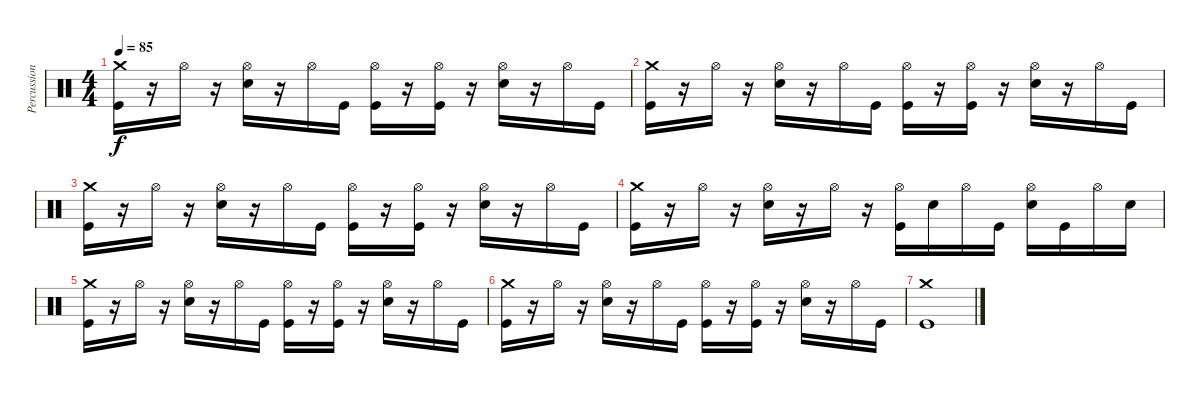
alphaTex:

\track ("Percussion" "Percussion") {instrument percussion}
\staff {score}
\articulation defaults
\ts (4 4)
\tempo 85
\clef neutral
\ks c
("Crash medium (hit)" "Kick (hit)").16{dy f} r.16 "Hi-Hat (open)".16 r.16 ("Hi-Hat (open)" "Snare (hit) 2").16 r.16 "Hi-Hat (open)".16 "Kick (hit)".16 ("Hi-Hat (open)" "Kick (hit)").16 r.16 ("Hi-Hat (open)" "Kick (hit)").16 r.16 ("Hi-Hat (open)" "Snare (hit) 2").16 r.16 "Hi-Hat (open)".16 "Kick (hit)".16 |
("Crash medium (hit)" "Kick (hit)").16 r.16 "Hi-Hat (open)".16 r.16 ("Hi-Hat (open)" "Snare (hit) 2").16 r.16 "Hi-Hat (open)".16 "Kick (hit)".16 ("Hi-Hat (open)" "Kick (hit)").16 r.16 ("Hi-Hat (open)" "Kick (hit)").16 r.16 ("Hi-Hat (open)" "Snare (hit) 2").16 r.16 "Hi-Hat (open)".16 "Kick (hit)".16 |
("Crash medium (hit)" "Kick (hit)").16 r.16 "Hi-Hat (open)".16 r.16 ("Hi-Hat (open)" "Snare (hit) 2").16 r.16 "Hi-Hat (open)".16 "Kick (hit)".16 ("Hi-Hat (open)" "Kick (hit)").16 r.16 ("Hi-Hat (open)" "Kick (hit)").16 r.16 ("Hi-Hat (open)" "Snare (hit) 2").16 r.16 "Hi-Hat (open)".16 "Kick (hit)".16 |
("Crash medium (hit)" "Kick (hit)").16 r.16 "Hi-Hat (open)".16 r.16 ("Hi-Hat (open)" "Snare (hit) 2").16 r.16 "Hi-Hat (open)".16 r.16 ("Hi-Hat (open)" "Kick (hit)").16 "Snare (hit) 2".16 "Hi-Hat (open)".16 "Kick (hit)".16 ("Hi-Hat (open)" "Snare (hit) 2").16 "Kick (hit)".16 "Hi-Hat (open)".16 "Snare (hit) 2".16 |
("Crash medium (hit)" "Kick (hit)").16 r.16 "Hi-Hat (open)".16 r.16 ("Hi-Hat (open)" "Snare (hit) 2").16 r.16 "Hi-Hat (open)".16 "Kick (hit)".16 ("Hi-Hat (open)" "Kick (hit)").16 r.16 ("Hi-Hat (open)" "Kick (hit)").16 r.16 ("Hi-Hat (open)" "Snare (hit) 2").16 r.16 "Hi-Hat (open)".16 "Kick (hit)".16 |
("Crash medium (hit)" "Kick (hit)").16 r.16 "Hi-Hat (open)".16 r.16 ("Hi-Hat (open)" "Snare (hit) 2").16 r.16 "Hi-Hat (open)".16 "Kick (hit)".16 ("Hi-Hat (open)" "Kick (hit)").16 r.16 ("Hi-Hat (open)" "Kick (hit)").16 r.16 ("Hi-Hat (open)" "Snare (hit) 2").16 r.16 "Hi-Hat (open)".16 "Kick (hit)".16 |
("Crash medium (hit)" "Kick (hit)").1
